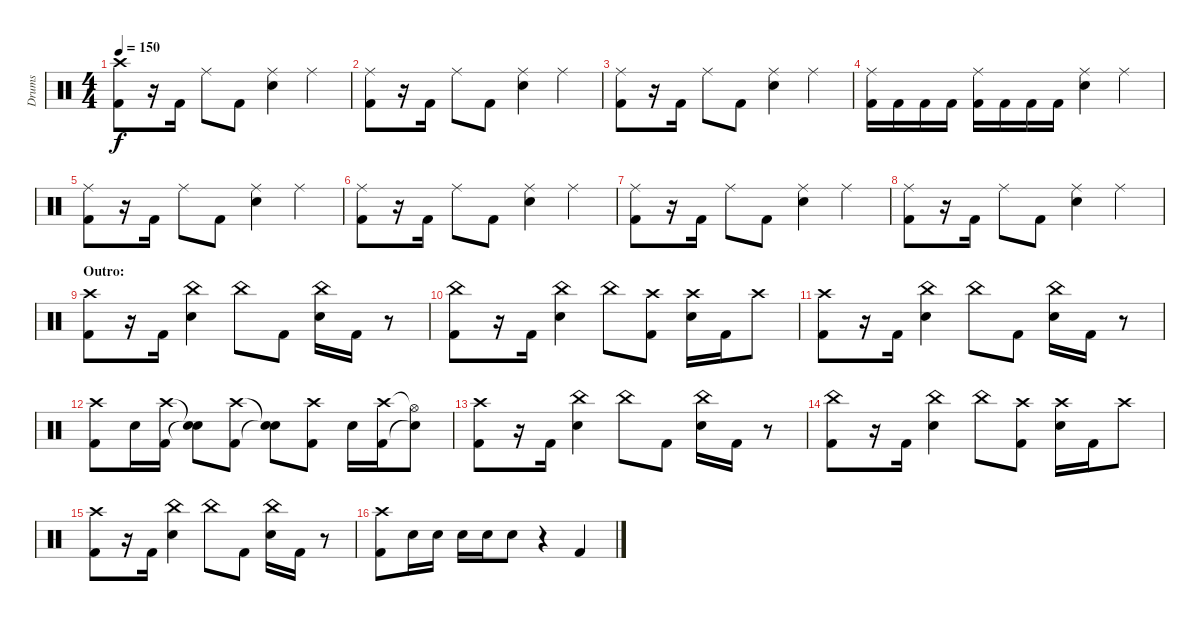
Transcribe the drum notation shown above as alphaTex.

\track ("Drums" "Drums") {instrument percussion}
\staff {score}
\articulation defaults
\ts (4 4)
\tempo 150
\clef neutral
\ks c
("Crash high (hit)" "Kick (hit) 2").8{dy f} r.16 "Kick (hit) 2".16 "Ride (middle)".8 "Kick (hit) 2".8 ("Ride (middle)" "Electric Snare (hit)").4 "Ride (middle)".4 |
("Ride (middle)" "Kick (hit) 2").8 r.16 "Kick (hit) 2".16 "Ride (middle)".8 "Kick (hit) 2".8 ("Ride (middle)" "Electric Snare (hit)").4 "Ride (middle)".4 |
("Ride (middle)" "Kick (hit) 2").8 r.16 "Kick (hit) 2".16 "Ride (middle)".8 "Kick (hit) 2".8 ("Ride (middle)" "Electric Snare (hit)").4 "Ride (middle)".4 |
("Ride (middle)" "Kick (hit) 2").16 "Kick (hit) 2".16 "Kick (hit) 2".16 "Kick (hit) 2".16 ("Ride (middle)" "Kick (hit) 2").16 "Kick (hit) 2".16 "Kick (hit) 2".16 "Kick (hit) 2".16 ("Ride (middle)" "Electric Snare (hit)").4 "Ride (middle)".4 |
("Ride (middle)" "Kick (hit) 2").8 r.16 "Kick (hit) 2".16 "Ride (middle)".8 "Kick (hit) 2".8 ("Ride (middle)" "Electric Snare (hit)").4 "Ride (middle)".4 |
("Ride (middle)" "Kick (hit) 2").8 r.16 "Kick (hit) 2".16 "Ride (middle)".8 "Kick (hit) 2".8 ("Ride (middle)" "Electric Snare (hit)").4 "Ride (middle)".4 |
("Ride (middle)" "Kick (hit) 2").8 r.16 "Kick (hit) 2".16 "Ride (middle)".8 "Kick (hit) 2".8 ("Ride (middle)" "Electric Snare (hit)").4 "Ride (middle)".4 |
("Ride (middle)" "Kick (hit) 2").8 r.16 "Kick (hit) 2".16 "Ride (middle)".8 "Kick (hit) 2".8 ("Ride (middle)" "Electric Snare (hit)").4 "Ride (middle)".4 |
\section ("" "Outro:")
("Crash high (hit)" "Kick (hit) 2").8 r.16 "Kick (hit) 2".16 ("China (hit)" "Electric Snare (hit)").4 "China (hit)".8 "Kick (hit) 2".8 ("China (hit)" "Electric Snare (hit)").16 "Kick (hit) 2".16 r.8 |
("China (hit)" "Kick (hit) 2").8 r.16 "Kick (hit) 2".16 ("China (hit)" "Electric Snare (hit)").4 "China (hit)".8 ("Crash high (hit)" "Kick (hit) 2").8 ("Crash high (hit)" "Electric Snare (hit)").16 "Kick (hit) 2".16 "Crash high (hit)".8 |
("Crash high (hit)" "Kick (hit) 2").8 r.16 "Kick (hit) 2".16 ("China (hit)" "Electric Snare (hit)").4 "China (hit)".8 "Kick (hit) 2".8 ("China (hit)" "Electric Snare (hit)").16 "Kick (hit) 2".16 r.8 |
("Crash high (hit)" "Kick (hit) 2").8 "Electric Snare (hit)".16 ("Crash high (hit)" "Kick (hit) 2").16 ("Snare (hit)"{t} "Snare (hit)"{t}).8 ("Crash high (hit)" "Kick (hit) 2").8 ("Snare (hit)"{t} "Snare (hit)"{t}).8 ("Crash high (hit)" "Kick (hit) 2").8 "Electric Snare (hit)".16 ("Crash high (hit)" "Kick (hit) 2").16 ("Hi-Hat (open)"{t} "Snare (hit)"{t}).8 |
("Crash high (hit)" "Kick (hit) 2").8 r.16 "Kick (hit) 2".16 ("China (hit)" "Electric Snare (hit)").4 "China (hit)".8 "Kick (hit) 2".8 ("China (hit)" "Electric Snare (hit)").16 "Kick (hit) 2".16 r.8 |
("China (hit)" "Kick (hit) 2").8 r.16 "Kick (hit) 2".16 ("China (hit)" "Electric Snare (hit)").4 "China (hit)".8 ("Crash high (hit)" "Kick (hit) 2").8 ("Crash high (hit)" "Electric Snare (hit)").16 "Kick (hit) 2".16 "Crash high (hit)".8 |
("Crash high (hit)" "Kick (hit) 2").8 r.16 "Kick (hit) 2".16 ("China (hit)" "Electric Snare (hit)").4 "China (hit)".8 "Kick (hit) 2".8 ("China (hit)" "Electric Snare (hit)").16 "Kick (hit) 2".16 r.8 |
("Crash high (hit)" "Kick (hit) 2").8 "Electric Snare (hit)".16 "Electric Snare (hit)".16 "Electric Snare (hit)".16 "Electric Snare (hit)".16 "Electric Snare (hit)".8 r.4 "Kick (hit) 2".4
